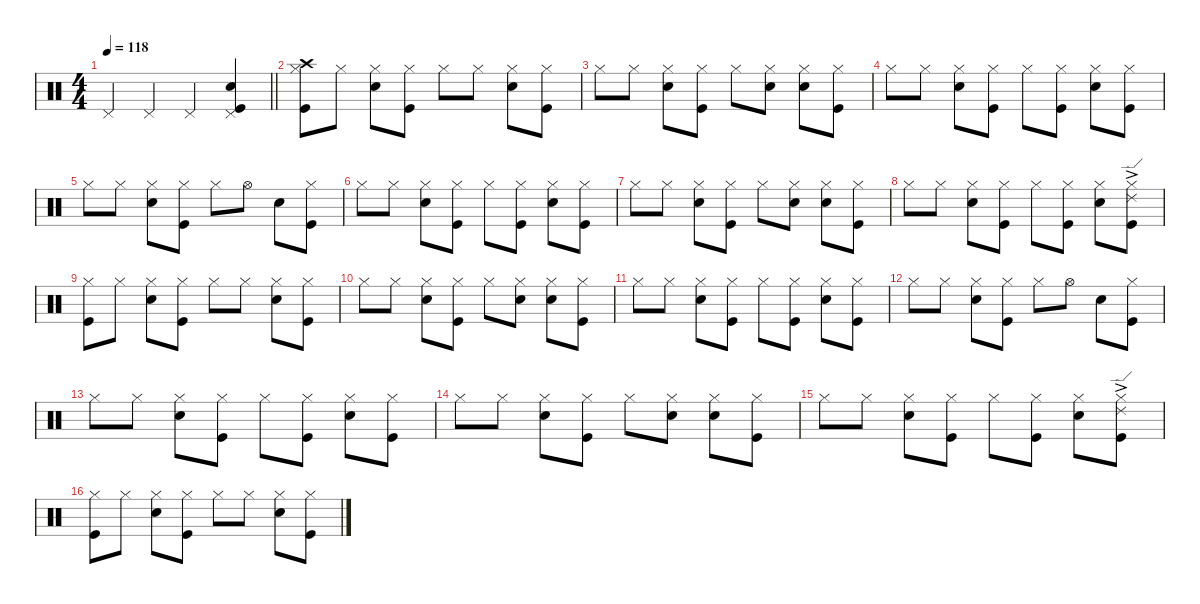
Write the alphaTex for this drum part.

\defaultSystemsLayout 4
\hideDynamics
\bracketExtendMode nobrackets
\singleTrackTrackNamePolicy hidden
\multiTrackTrackNamePolicy hidden
\firstSystemTrackNameMode fullname
\otherSystemsTrackNameOrientation horizontal
\track ("Drums" "drm.") {instrument percussion}
\staff {score}
\articulation defaults
\ts (4 4)
\tempo 118
\clef neutral
\barLineRight lightlight
\ks c "Pedal Hi-Hat (hit)".4{dy f beam Up} "Pedal Hi-Hat (hit)".4{beam Up} "Pedal Hi-Hat (hit)".4{beam Up}
("Pedal Hi-Hat (hit)" "Snare (hit) 2" "Kick (hit)").4{beam Up} |
("Hi-Hat (closed)" "Crash high (hit)" "Kick (hit)").8{beam Down} "Hi-Hat (closed)".8{beam Down} ("Hi-Hat (closed)" "Snare (hit) 2").8{beam Down} ("Hi-Hat (closed)" "Kick (hit)").8{beam Down} "Hi-Hat (closed)".8{beam Down} "Hi-Hat (closed)".8{beam Down} ("Hi-Hat (closed)" "Snare (hit) 2").8{beam Down} ("Hi-Hat (closed)" "Kick (hit)").8{beam Down} |
"Hi-Hat (closed)".8{beam Down} "Hi-Hat (closed)".8{beam Down} ("Hi-Hat (closed)" "Snare (hit) 2").8{beam Down} ("Hi-Hat (closed)" "Kick (hit)").8{beam Down} "Hi-Hat (closed)".8{beam Down} ("Hi-Hat (closed)" "Snare (hit) 2").8{beam Down} ("Hi-Hat (closed)" "Snare (hit) 2").8{beam Down} ("Hi-Hat (closed)" "Kick (hit)").8{beam Down} |
"Hi-Hat (closed)".8{beam Down} "Hi-Hat (closed)".8{beam Down} ("Hi-Hat (closed)" "Snare (hit) 2").8{beam Down} ("Hi-Hat (closed)" "Kick (hit)").8{beam Down} "Hi-Hat (closed)".8{beam Down} ("Hi-Hat (closed)" "Kick (hit)").8{beam Down} ("Hi-Hat (closed)" "Snare (hit) 2").8{beam Down} ("Hi-Hat (closed)" "Kick (hit)").8{beam Down} |
"Hi-Hat (closed)".8{beam Down} "Hi-Hat (closed)".8{beam Down} ("Hi-Hat (closed)" "Snare (hit) 2").8{beam Down} ("Hi-Hat (closed)" "Kick (hit)").8{beam Down} "Hi-Hat (closed)".8{beam Down} "Hi-Hat (open)".8{beam Down} "Snare (hit) 2".8{beam Down} ("Hi-Hat (closed)" "Kick (hit)").8{beam Down} |
"Hi-Hat (closed)".8{beam Down} "Hi-Hat (closed)".8{beam Down} ("Hi-Hat (closed)" "Snare (hit) 2").8{beam Down} ("Hi-Hat (closed)" "Kick (hit)").8{beam Down} "Hi-Hat (closed)".8{beam Down} ("Hi-Hat (closed)" "Kick (hit)").8{beam Down} ("Hi-Hat (closed)" "Snare (hit) 2").8{beam Down} ("Hi-Hat (closed)" "Kick (hit)").8{beam Down} |
"Hi-Hat (closed)".8{beam Down} "Hi-Hat (closed)".8{beam Down} ("Hi-Hat (closed)" "Snare (hit) 2").8{beam Down} ("Hi-Hat (closed)" "Kick (hit)").8{beam Down} "Hi-Hat (closed)".8{beam Down} ("Hi-Hat (closed)" "Snare (hit) 2").8{beam Down} ("Hi-Hat (closed)" "Snare (hit) 2").8{beam Down} ("Hi-Hat (closed)" "Kick (hit)").8{beam Down} |
"Hi-Hat (closed)".8{beam Down} "Hi-Hat (closed)".8{beam Down} ("Hi-Hat (closed)" "Snare (hit) 2").8{beam Down} ("Hi-Hat (closed)" "Kick (hit)").8{beam Down} "Hi-Hat (closed)".8{beam Down} ("Hi-Hat (closed)" "Kick (hit)").8{beam Down} ("Hi-Hat (closed)" "Snare (hit) 2").8{beam Down} ("Hi-Hat (closed)" "Ride (edge) 2"{ac} "Kick (hit)").8{beam Down} |
("Hi-Hat (closed)" "Kick (hit)").8{beam Down} "Hi-Hat (closed)".8{beam Down} ("Hi-Hat (closed)" "Snare (hit) 2").8{beam Down} ("Hi-Hat (closed)" "Kick (hit)").8{beam Down} "Hi-Hat (closed)".8{beam Down} "Hi-Hat (closed)".8{beam Down} ("Hi-Hat (closed)" "Snare (hit) 2").8{beam Down} ("Hi-Hat (closed)" "Kick (hit)").8{beam Down} |
"Hi-Hat (closed)".8{beam Down} "Hi-Hat (closed)".8{beam Down} ("Hi-Hat (closed)" "Snare (hit) 2").8{beam Down} ("Hi-Hat (closed)" "Kick (hit)").8{beam Down} "Hi-Hat (closed)".8{beam Down} ("Hi-Hat (closed)" "Snare (hit) 2").8{beam Down} ("Hi-Hat (closed)" "Snare (hit) 2").8{beam Down} ("Hi-Hat (closed)" "Kick (hit)").8{beam Down} |
"Hi-Hat (closed)".8{beam Down} "Hi-Hat (closed)".8{beam Down} ("Hi-Hat (closed)" "Snare (hit) 2").8{beam Down} ("Hi-Hat (closed)" "Kick (hit)").8{beam Down} "Hi-Hat (closed)".8{beam Down} ("Hi-Hat (closed)" "Kick (hit)").8{beam Down} ("Hi-Hat (closed)" "Snare (hit) 2").8{beam Down} ("Hi-Hat (closed)" "Kick (hit)").8{beam Down} |
"Hi-Hat (closed)".8{beam Down} "Hi-Hat (closed)".8{beam Down} ("Hi-Hat (closed)" "Snare (hit) 2").8{beam Down} ("Hi-Hat (closed)" "Kick (hit)").8{beam Down} "Hi-Hat (closed)".8{beam Down} "Hi-Hat (open)".8{beam Down} "Snare (hit) 2".8{beam Down} ("Hi-Hat (closed)" "Kick (hit)").8{beam Down} |
"Hi-Hat (closed)".8{beam Down} "Hi-Hat (closed)".8{beam Down} ("Hi-Hat (closed)" "Snare (hit) 2").8{beam Down} ("Hi-Hat (closed)" "Kick (hit)").8{beam Down} "Hi-Hat (closed)".8{beam Down} ("Hi-Hat (closed)" "Kick (hit)").8{beam Down} ("Hi-Hat (closed)" "Snare (hit) 2").8{beam Down} ("Hi-Hat (closed)" "Kick (hit)").8{beam Down} |
"Hi-Hat (closed)".8{beam Down} "Hi-Hat (closed)".8{beam Down} ("Hi-Hat (closed)" "Snare (hit) 2").8{beam Down} ("Hi-Hat (closed)" "Kick (hit)").8{beam Down} "Hi-Hat (closed)".8{beam Down} ("Hi-Hat (closed)" "Snare (hit) 2").8{beam Down} ("Hi-Hat (closed)" "Snare (hit) 2").8{beam Down} ("Hi-Hat (closed)" "Kick (hit)").8{beam Down} |
"Hi-Hat (closed)".8{beam Down} "Hi-Hat (closed)".8{beam Down} ("Hi-Hat (closed)" "Snare (hit) 2").8{beam Down} ("Hi-Hat (closed)" "Kick (hit)").8{beam Down} "Hi-Hat (closed)".8{beam Down} ("Hi-Hat (closed)" "Kick (hit)").8{beam Down} ("Hi-Hat (closed)" "Snare (hit) 2").8{beam Down} ("Hi-Hat (closed)" "Ride (edge) 2"{ac} "Kick (hit)").8{beam Down} |
("Hi-Hat (closed)" "Kick (hit)").8{beam Down} "Hi-Hat (closed)".8{beam Down} ("Hi-Hat (closed)" "Snare (hit) 2").8{beam Down} ("Hi-Hat (closed)" "Kick (hit)").8{beam Down} "Hi-Hat (closed)".8{beam Down} "Hi-Hat (closed)".8{beam Down} ("Hi-Hat (closed)" "Snare (hit) 2").8{beam Down} ("Hi-Hat (closed)" "Kick (hit)").8{beam Down}
